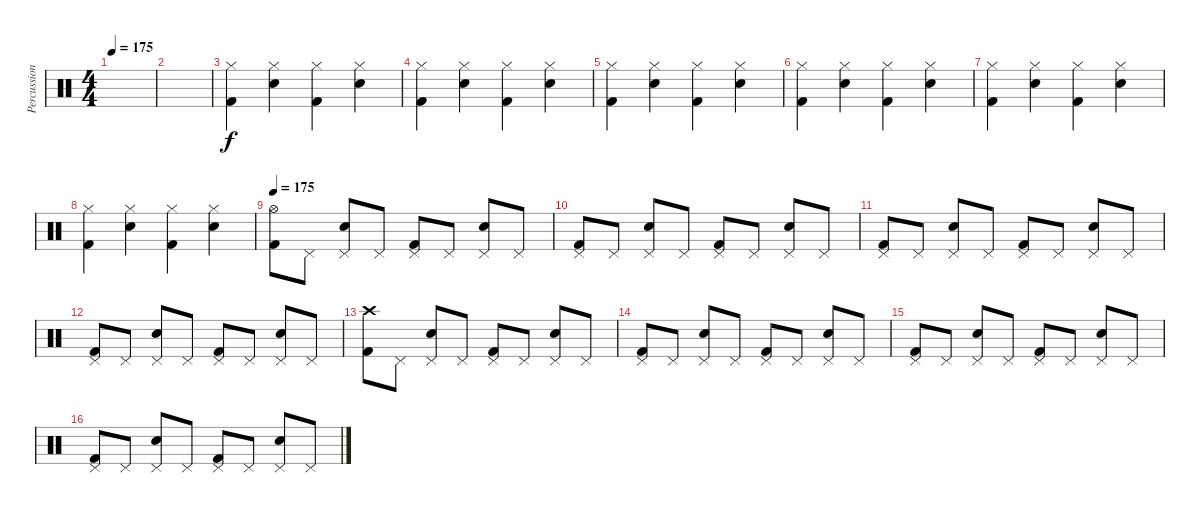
\track ("Percussions" "Percussion") {instrument percussion}
\staff {score}
\articulation defaults
\ts (4 4)
\tempo 175
\tempo 160
\tempo 175
\clef neutral
\ks c
|
|
("Hi-Hat (closed)" "Kick (hit) 2").4 ("Hi-Hat (closed)" "Snare (hit) 2").4 ("Hi-Hat (closed)" "Kick (hit) 2").4 ("Hi-Hat (closed)" "Snare (hit) 2").4 |
("Hi-Hat (closed)" "Kick (hit) 2").4 ("Hi-Hat (closed)" "Snare (hit) 2").4 ("Hi-Hat (closed)" "Kick (hit) 2").4 ("Hi-Hat (closed)" "Snare (hit) 2").4 |
("Hi-Hat (closed)" "Kick (hit) 2").4 ("Hi-Hat (closed)" "Snare (hit) 2").4 ("Hi-Hat (closed)" "Kick (hit) 2").4 ("Hi-Hat (closed)" "Snare (hit) 2").4 |
("Hi-Hat (closed)" "Kick (hit) 2").4 ("Hi-Hat (closed)" "Snare (hit) 2").4 ("Hi-Hat (closed)" "Kick (hit) 2").4 ("Hi-Hat (closed)" "Snare (hit) 2").4 |
("Hi-Hat (closed)" "Kick (hit) 2").4 ("Hi-Hat (closed)" "Snare (hit) 2").4 ("Hi-Hat (closed)" "Kick (hit) 2").4 ("Hi-Hat (closed)" "Snare (hit) 2").4 |
("Hi-Hat (closed)" "Kick (hit) 2").4 ("Hi-Hat (closed)" "Snare (hit) 2").4 ("Hi-Hat (closed)" "Kick (hit) 2").4 ("Hi-Hat (closed)" "Snare (hit) 2").4 |
\tempo 175
("Hi-Hat (open)" "Kick (hit) 2").8 "Pedal Hi-Hat (hit)".8 ("Pedal Hi-Hat (hit)" "Snare (hit) 2").8 "Pedal Hi-Hat (hit)".8 ("Pedal Hi-Hat (hit)" "Kick (hit) 2").8 "Pedal Hi-Hat (hit)".8 ("Pedal Hi-Hat (hit)" "Snare (hit) 2").8 "Pedal Hi-Hat (hit)".8 |
("Pedal Hi-Hat (hit)" "Kick (hit) 2").8 "Pedal Hi-Hat (hit)".8 ("Pedal Hi-Hat (hit)" "Snare (hit) 2").8 "Pedal Hi-Hat (hit)".8 ("Pedal Hi-Hat (hit)" "Kick (hit) 2").8 "Pedal Hi-Hat (hit)".8 ("Pedal Hi-Hat (hit)" "Snare (hit) 2").8 "Pedal Hi-Hat (hit)".8 |
("Pedal Hi-Hat (hit)" "Kick (hit) 2").8 "Pedal Hi-Hat (hit)".8 ("Pedal Hi-Hat (hit)" "Snare (hit) 2").8 "Pedal Hi-Hat (hit)".8 ("Pedal Hi-Hat (hit)" "Kick (hit) 2").8 "Pedal Hi-Hat (hit)".8 ("Pedal Hi-Hat (hit)" "Snare (hit) 2").8 "Pedal Hi-Hat (hit)".8 |
("Pedal Hi-Hat (hit)" "Kick (hit) 2").8 "Pedal Hi-Hat (hit)".8 ("Pedal Hi-Hat (hit)" "Snare (hit) 2").8 "Pedal Hi-Hat (hit)".8 ("Pedal Hi-Hat (hit)" "Kick (hit) 2").8 "Pedal Hi-Hat (hit)".8 ("Pedal Hi-Hat (hit)" "Snare (hit) 2").8 "Pedal Hi-Hat (hit)".8 |
("Crash high (hit)" "Kick (hit) 2").8 "Pedal Hi-Hat (hit)".8 ("Pedal Hi-Hat (hit)" "Snare (hit) 2").8 "Pedal Hi-Hat (hit)".8 ("Pedal Hi-Hat (hit)" "Kick (hit) 2").8 "Pedal Hi-Hat (hit)".8 ("Pedal Hi-Hat (hit)" "Snare (hit) 2").8 "Pedal Hi-Hat (hit)".8 |
("Pedal Hi-Hat (hit)" "Kick (hit) 2").8 "Pedal Hi-Hat (hit)".8 ("Pedal Hi-Hat (hit)" "Snare (hit) 2").8 "Pedal Hi-Hat (hit)".8 ("Pedal Hi-Hat (hit)" "Kick (hit) 2").8 "Pedal Hi-Hat (hit)".8 ("Pedal Hi-Hat (hit)" "Snare (hit) 2").8 "Pedal Hi-Hat (hit)".8 |
("Pedal Hi-Hat (hit)" "Kick (hit) 2").8 "Pedal Hi-Hat (hit)".8 ("Pedal Hi-Hat (hit)" "Snare (hit) 2").8 "Pedal Hi-Hat (hit)".8 ("Pedal Hi-Hat (hit)" "Kick (hit) 2").8 "Pedal Hi-Hat (hit)".8 ("Pedal Hi-Hat (hit)" "Snare (hit) 2").8 "Pedal Hi-Hat (hit)".8 |
("Pedal Hi-Hat (hit)" "Kick (hit) 2").8 "Pedal Hi-Hat (hit)".8 ("Pedal Hi-Hat (hit)" "Snare (hit) 2").8 "Pedal Hi-Hat (hit)".8 ("Pedal Hi-Hat (hit)" "Kick (hit) 2").8 "Pedal Hi-Hat (hit)".8 ("Pedal Hi-Hat (hit)" "Snare (hit) 2").8 "Pedal Hi-Hat (hit)".8
